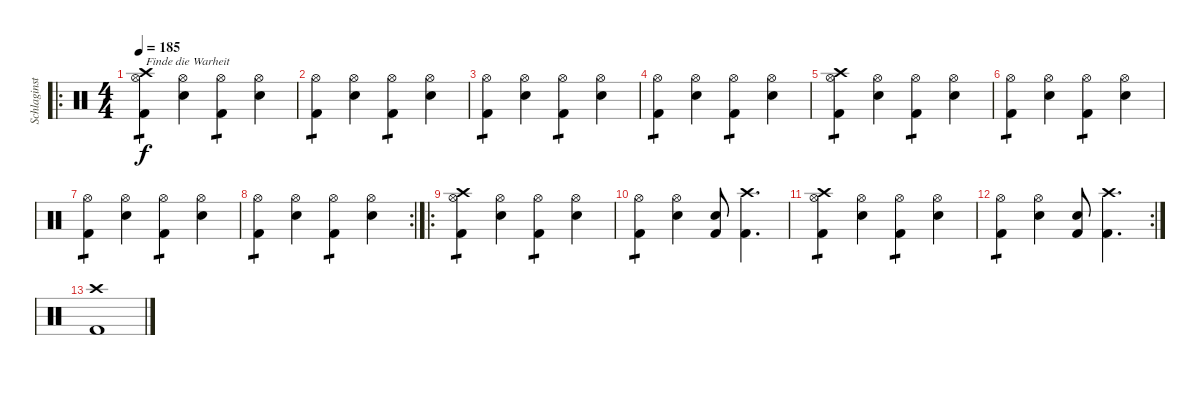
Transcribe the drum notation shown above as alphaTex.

\track ("Schlaginstrumente - Auswahl" "Schlaginst") {instrument percussion}
\staff {score}
\articulation defaults
\ro
\ts (4 4)
\tempo 185
\clef neutral
\ks c
("Hi-Hat (open)" "Kick (hit) 2" "Crash high (hit)").4{txt "Finde die Warheit" tp 1 dy f} ("Hi-Hat (open)" "Electric Snare (hit)").4 ("Hi-Hat (open)" "Kick (hit) 2").4{tp 1} ("Hi-Hat (open)" "Electric Snare (hit)").4 |
("Hi-Hat (open)" "Kick (hit) 2").4{tp 1} ("Hi-Hat (open)" "Electric Snare (hit)").4 ("Hi-Hat (open)" "Kick (hit) 2").4{tp 1} ("Hi-Hat (open)" "Electric Snare (hit)").4 |
("Hi-Hat (open)" "Kick (hit) 2").4{tp 1} ("Hi-Hat (open)" "Electric Snare (hit)").4 ("Hi-Hat (open)" "Kick (hit) 2").4{tp 1} ("Hi-Hat (open)" "Electric Snare (hit)").4 |
("Hi-Hat (open)" "Kick (hit) 2").4{tp 1} ("Hi-Hat (open)" "Electric Snare (hit)").4 ("Hi-Hat (open)" "Kick (hit) 2").4{tp 1} ("Hi-Hat (open)" "Electric Snare (hit)").4 |
("Hi-Hat (open)" "Kick (hit) 2" "Crash high (hit)").4{tp 1} ("Hi-Hat (open)" "Electric Snare (hit)").4 ("Hi-Hat (open)" "Kick (hit) 2").4{tp 1} ("Hi-Hat (open)" "Electric Snare (hit)").4 |
("Hi-Hat (open)" "Kick (hit) 2").4{tp 1} ("Hi-Hat (open)" "Electric Snare (hit)").4 ("Hi-Hat (open)" "Kick (hit) 2").4{tp 1} ("Hi-Hat (open)" "Electric Snare (hit)").4 |
("Hi-Hat (open)" "Kick (hit) 2").4{tp 1} ("Hi-Hat (open)" "Electric Snare (hit)").4 ("Hi-Hat (open)" "Kick (hit) 2").4{tp 1} ("Hi-Hat (open)" "Electric Snare (hit)").4 |
\rc 2
("Hi-Hat (open)" "Kick (hit) 2").4{tp 1} ("Hi-Hat (open)" "Electric Snare (hit)").4 ("Hi-Hat (open)" "Kick (hit) 2").4{tp 1} ("Hi-Hat (open)" "Electric Snare (hit)").4 |
\ro
("Hi-Hat (open)" "Kick (hit) 2" "Crash high (hit)").4{tp 1} ("Hi-Hat (open)" "Electric Snare (hit)").4 ("Hi-Hat (open)" "Kick (hit) 2").4{tp 1} ("Hi-Hat (open)" "Electric Snare (hit)").4 |
("Hi-Hat (open)" "Kick (hit) 2").4{tp 1} ("Hi-Hat (open)" "Electric Snare (hit)").4 ("Electric Snare (hit)" "Kick (hit) 2").8 ("Crash high (hit)" "Kick (hit) 2").4{d} |
("Hi-Hat (open)" "Kick (hit) 2" "Crash high (hit)").4{tp 1} ("Hi-Hat (open)" "Electric Snare (hit)").4 ("Hi-Hat (open)" "Kick (hit) 2").4{tp 1} ("Hi-Hat (open)" "Electric Snare (hit)").4 |
\rc 2
("Hi-Hat (open)" "Kick (hit) 2").4{tp 1} ("Hi-Hat (open)" "Electric Snare (hit)").4 ("Electric Snare (hit)" "Kick (hit) 2").8 ("Crash high (hit)" "Kick (hit) 2").4{d} |
("Crash high (hit)" "Kick (hit) 2").1
